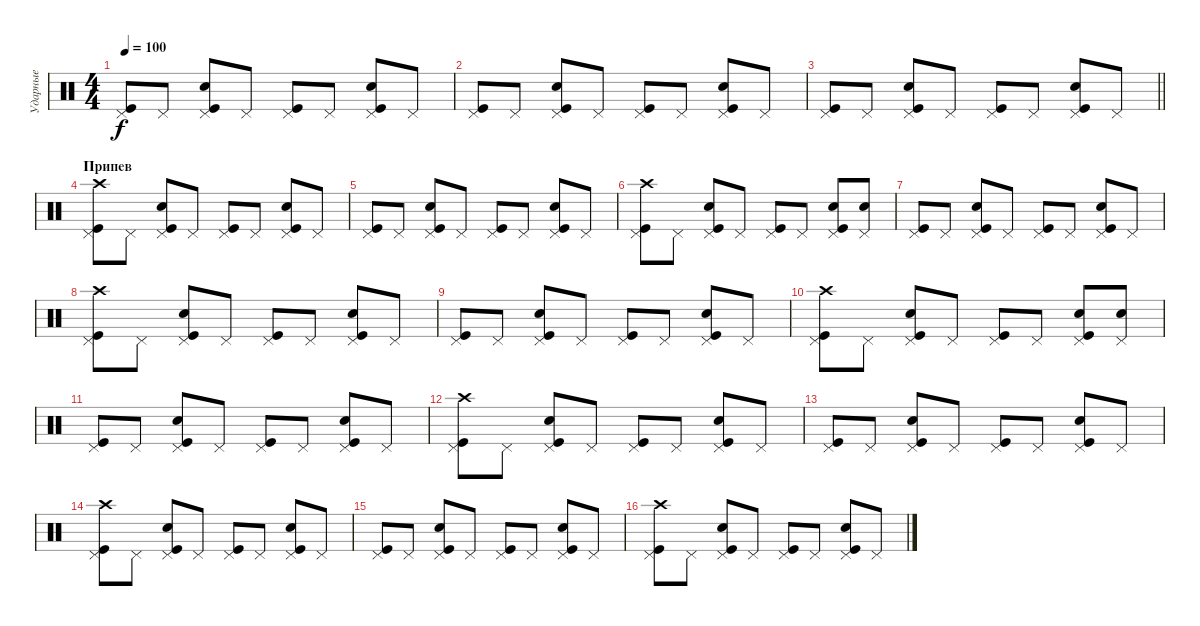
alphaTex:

\track ("Ударные" "Ударные") {instrument percussion}
\staff {score}
\articulation defaults
\ts (4 4)
\tempo 100
\clef neutral
\ks c
("Pedal Hi-Hat (hit)" "Kick (hit)").8{dy f} "Pedal Hi-Hat (hit)".8 ("Pedal Hi-Hat (hit)" "Kick (hit)" "Snare (hit) 2").8 "Pedal Hi-Hat (hit)".8 ("Pedal Hi-Hat (hit)" "Kick (hit)").8 "Pedal Hi-Hat (hit)".8 ("Pedal Hi-Hat (hit)" "Kick (hit)" "Snare (hit) 2").8 "Pedal Hi-Hat (hit)".8 |
("Pedal Hi-Hat (hit)" "Kick (hit)").8 "Pedal Hi-Hat (hit)".8 ("Pedal Hi-Hat (hit)" "Kick (hit)" "Snare (hit) 2").8 "Pedal Hi-Hat (hit)".8 ("Pedal Hi-Hat (hit)" "Kick (hit)").8 "Pedal Hi-Hat (hit)".8 ("Pedal Hi-Hat (hit)" "Kick (hit)" "Snare (hit) 2").8 "Pedal Hi-Hat (hit)".8 |
\barLineRight lightlight
("Pedal Hi-Hat (hit)" "Kick (hit)").8 "Pedal Hi-Hat (hit)".8 ("Pedal Hi-Hat (hit)" "Kick (hit)" "Snare (hit) 2").8 "Pedal Hi-Hat (hit)".8 ("Pedal Hi-Hat (hit)" "Kick (hit)").8 "Pedal Hi-Hat (hit)".8 ("Pedal Hi-Hat (hit)" "Kick (hit)" "Snare (hit) 2").8 "Pedal Hi-Hat (hit)".8 |
\section ("" "Припев")
("Pedal Hi-Hat (hit)" "Kick (hit)" "Crash high (hit)").8 "Pedal Hi-Hat (hit)".8 ("Pedal Hi-Hat (hit)" "Kick (hit)" "Snare (hit) 2").8 "Pedal Hi-Hat (hit)".8 ("Pedal Hi-Hat (hit)" "Kick (hit)").8 "Pedal Hi-Hat (hit)".8 ("Pedal Hi-Hat (hit)" "Kick (hit)" "Snare (hit) 2").8 "Pedal Hi-Hat (hit)".8 |
("Pedal Hi-Hat (hit)" "Kick (hit)").8 "Pedal Hi-Hat (hit)".8 ("Pedal Hi-Hat (hit)" "Kick (hit)" "Snare (hit) 2").8 "Pedal Hi-Hat (hit)".8 ("Pedal Hi-Hat (hit)" "Kick (hit)").8 "Pedal Hi-Hat (hit)".8 ("Pedal Hi-Hat (hit)" "Kick (hit)" "Snare (hit) 2").8 "Pedal Hi-Hat (hit)".8 |
("Pedal Hi-Hat (hit)" "Kick (hit)" "Crash high (hit)").8 "Pedal Hi-Hat (hit)".8 ("Pedal Hi-Hat (hit)" "Kick (hit)" "Snare (hit) 2").8 "Pedal Hi-Hat (hit)".8 ("Pedal Hi-Hat (hit)" "Kick (hit)").8 "Pedal Hi-Hat (hit)".8 ("Pedal Hi-Hat (hit)" "Kick (hit)" "Snare (hit) 2").8 ("Pedal Hi-Hat (hit)" "Snare (hit) 2").8 |
("Pedal Hi-Hat (hit)" "Kick (hit)").8 "Pedal Hi-Hat (hit)".8 ("Pedal Hi-Hat (hit)" "Kick (hit)" "Snare (hit) 2").8 "Pedal Hi-Hat (hit)".8 ("Pedal Hi-Hat (hit)" "Kick (hit)").8 "Pedal Hi-Hat (hit)".8 ("Pedal Hi-Hat (hit)" "Kick (hit)" "Snare (hit) 2").8 "Pedal Hi-Hat (hit)".8 |
("Pedal Hi-Hat (hit)" "Kick (hit)" "Crash high (hit)").8 "Pedal Hi-Hat (hit)".8 ("Pedal Hi-Hat (hit)" "Kick (hit)" "Snare (hit) 2").8 "Pedal Hi-Hat (hit)".8 ("Pedal Hi-Hat (hit)" "Kick (hit)").8 "Pedal Hi-Hat (hit)".8 ("Pedal Hi-Hat (hit)" "Kick (hit)" "Snare (hit) 2").8 "Pedal Hi-Hat (hit)".8 |
("Pedal Hi-Hat (hit)" "Kick (hit)").8 "Pedal Hi-Hat (hit)".8 ("Pedal Hi-Hat (hit)" "Kick (hit)" "Snare (hit) 2").8 "Pedal Hi-Hat (hit)".8 ("Pedal Hi-Hat (hit)" "Kick (hit)").8 "Pedal Hi-Hat (hit)".8 ("Pedal Hi-Hat (hit)" "Kick (hit)" "Snare (hit) 2").8 "Pedal Hi-Hat (hit)".8 |
("Pedal Hi-Hat (hit)" "Kick (hit)" "Crash high (hit)").8 "Pedal Hi-Hat (hit)".8 ("Pedal Hi-Hat (hit)" "Kick (hit)" "Snare (hit) 2").8 "Pedal Hi-Hat (hit)".8 ("Pedal Hi-Hat (hit)" "Kick (hit)").8 "Pedal Hi-Hat (hit)".8 ("Pedal Hi-Hat (hit)" "Kick (hit)" "Snare (hit) 2").8 ("Pedal Hi-Hat (hit)" "Snare (hit) 2").8 |
("Pedal Hi-Hat (hit)" "Kick (hit)").8 "Pedal Hi-Hat (hit)".8 ("Pedal Hi-Hat (hit)" "Kick (hit)" "Snare (hit) 2").8 "Pedal Hi-Hat (hit)".8 ("Pedal Hi-Hat (hit)" "Kick (hit)").8 "Pedal Hi-Hat (hit)".8 ("Pedal Hi-Hat (hit)" "Kick (hit)" "Snare (hit) 2").8 "Pedal Hi-Hat (hit)".8 |
("Pedal Hi-Hat (hit)" "Kick (hit)" "Crash high (hit)").8 "Pedal Hi-Hat (hit)".8 ("Pedal Hi-Hat (hit)" "Kick (hit)" "Snare (hit) 2").8 "Pedal Hi-Hat (hit)".8 ("Pedal Hi-Hat (hit)" "Kick (hit)").8 "Pedal Hi-Hat (hit)".8 ("Pedal Hi-Hat (hit)" "Kick (hit)" "Snare (hit) 2").8 "Pedal Hi-Hat (hit)".8 |
("Pedal Hi-Hat (hit)" "Kick (hit)").8 "Pedal Hi-Hat (hit)".8 ("Pedal Hi-Hat (hit)" "Kick (hit)" "Snare (hit) 2").8 "Pedal Hi-Hat (hit)".8 ("Pedal Hi-Hat (hit)" "Kick (hit)").8 "Pedal Hi-Hat (hit)".8 ("Pedal Hi-Hat (hit)" "Kick (hit)" "Snare (hit) 2").8 "Pedal Hi-Hat (hit)".8 |
("Pedal Hi-Hat (hit)" "Kick (hit)" "Crash high (hit)").8 "Pedal Hi-Hat (hit)".8 ("Pedal Hi-Hat (hit)" "Kick (hit)" "Snare (hit) 2").8 "Pedal Hi-Hat (hit)".8 ("Pedal Hi-Hat (hit)" "Kick (hit)").8 "Pedal Hi-Hat (hit)".8 ("Pedal Hi-Hat (hit)" "Kick (hit)" "Snare (hit) 2").8 "Pedal Hi-Hat (hit)".8 |
("Pedal Hi-Hat (hit)" "Kick (hit)").8 "Pedal Hi-Hat (hit)".8 ("Pedal Hi-Hat (hit)" "Kick (hit)" "Snare (hit) 2").8 "Pedal Hi-Hat (hit)".8 ("Pedal Hi-Hat (hit)" "Kick (hit)").8 "Pedal Hi-Hat (hit)".8 ("Pedal Hi-Hat (hit)" "Kick (hit)" "Snare (hit) 2").8 "Pedal Hi-Hat (hit)".8 |
("Pedal Hi-Hat (hit)" "Kick (hit)" "Crash high (hit)").8 "Pedal Hi-Hat (hit)".8 ("Pedal Hi-Hat (hit)" "Kick (hit)" "Snare (hit) 2").8 "Pedal Hi-Hat (hit)".8 ("Pedal Hi-Hat (hit)" "Kick (hit)").8 "Pedal Hi-Hat (hit)".8 ("Pedal Hi-Hat (hit)" "Kick (hit)" "Snare (hit) 2").8 "Pedal Hi-Hat (hit)".8
